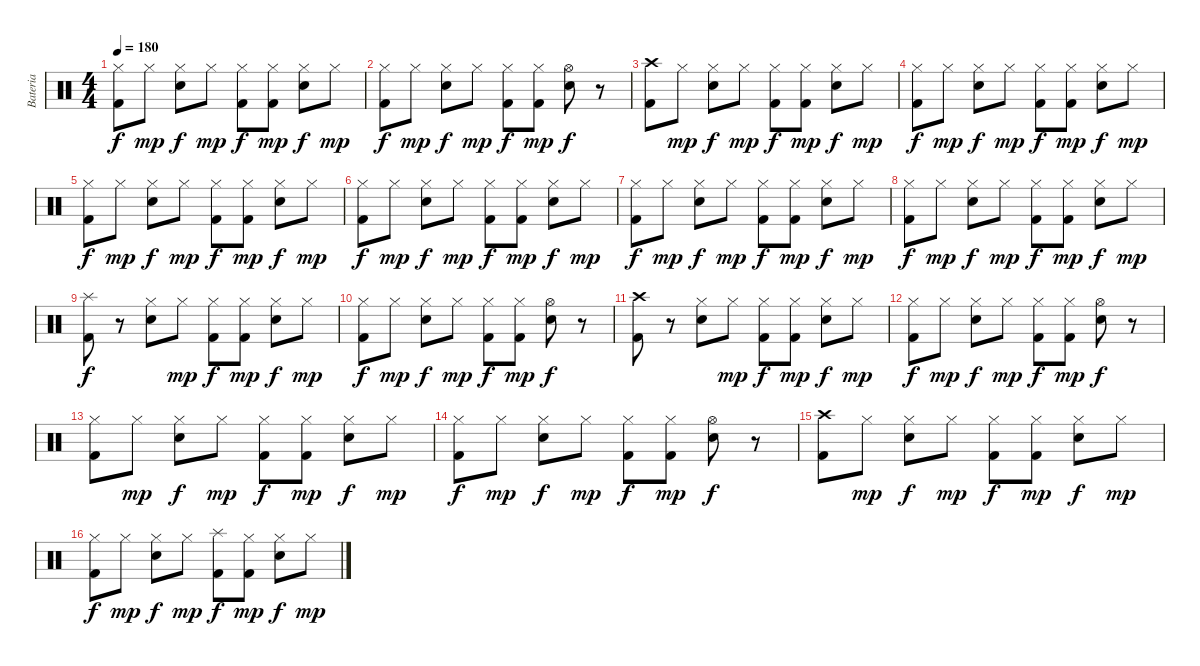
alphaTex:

\track ("Bateria" "Bateria") {instrument percussion}
\staff {score}
\articulation defaults
\ts (4 4)
\tempo 180
\clef neutral
\ks c
("Hi-Hat (closed)" "Kick (hit) 2").8{dy f} "Hi-Hat (closed)".8{dy mp} ("Hi-Hat (closed)" "Electric Snare (hit)").8{dy f} "Hi-Hat (closed)".8{dy mp} ("Hi-Hat (closed)" "Kick (hit) 2").8{dy f} ("Hi-Hat (closed)" "Kick (hit) 2").8{dy mp} ("Hi-Hat (closed)" "Electric Snare (hit)").8{dy f} "Hi-Hat (closed)".8{dy mp} |
("Hi-Hat (closed)" "Kick (hit) 2").8{dy f} "Hi-Hat (closed)".8{dy mp} ("Hi-Hat (closed)" "Electric Snare (hit)").8{dy f} "Hi-Hat (closed)".8{dy mp} ("Hi-Hat (closed)" "Kick (hit) 2").8{dy f} ("Hi-Hat (closed)" "Kick (hit) 2").8{dy mp} ("Hi-Hat (open)" "Electric Snare (hit)").8{dy f} r.8 |
("Crash high (hit)" "Kick (hit) 2").8 "Hi-Hat (closed)".8{dy mp} ("Hi-Hat (closed)" "Electric Snare (hit)").8{dy f} "Hi-Hat (closed)".8{dy mp} ("Hi-Hat (closed)" "Kick (hit) 2").8{dy f} ("Hi-Hat (closed)" "Kick (hit) 2").8{dy mp} ("Hi-Hat (closed)" "Electric Snare (hit)").8{dy f} "Hi-Hat (closed)".8{dy mp} |
("Hi-Hat (closed)" "Kick (hit) 2").8{dy f} "Hi-Hat (closed)".8{dy mp} ("Hi-Hat (closed)" "Electric Snare (hit)").8{dy f} "Hi-Hat (closed)".8{dy mp} ("Hi-Hat (closed)" "Kick (hit) 2").8{dy f} ("Hi-Hat (closed)" "Kick (hit) 2").8{dy mp} ("Hi-Hat (closed)" "Electric Snare (hit)").8{dy f} "Hi-Hat (closed)".8{dy mp} |
("Hi-Hat (closed)" "Kick (hit) 2").8{dy f} "Hi-Hat (closed)".8{dy mp} ("Hi-Hat (closed)" "Electric Snare (hit)").8{dy f} "Hi-Hat (closed)".8{dy mp} ("Hi-Hat (closed)" "Kick (hit) 2").8{dy f} ("Hi-Hat (closed)" "Kick (hit) 2").8{dy mp} ("Hi-Hat (closed)" "Electric Snare (hit)").8{dy f} "Hi-Hat (closed)".8{dy mp} |
("Hi-Hat (closed)" "Kick (hit) 2").8{dy f} "Hi-Hat (closed)".8{dy mp} ("Hi-Hat (closed)" "Electric Snare (hit)").8{dy f} "Hi-Hat (closed)".8{dy mp} ("Hi-Hat (closed)" "Kick (hit) 2").8{dy f} ("Hi-Hat (closed)" "Kick (hit) 2").8{dy mp} ("Hi-Hat (closed)" "Electric Snare (hit)").8{dy f} "Hi-Hat (closed)".8{dy mp} |
("Hi-Hat (closed)" "Kick (hit) 2").8{dy f} "Hi-Hat (closed)".8{dy mp} ("Hi-Hat (closed)" "Electric Snare (hit)").8{dy f} "Hi-Hat (closed)".8{dy mp} ("Hi-Hat (closed)" "Kick (hit) 2").8{dy f} ("Hi-Hat (closed)" "Kick (hit) 2").8{dy mp} ("Hi-Hat (closed)" "Electric Snare (hit)").8{dy f} "Hi-Hat (closed)".8{dy mp} |
("Hi-Hat (closed)" "Kick (hit) 2").8{dy f} "Hi-Hat (closed)".8{dy mp} ("Hi-Hat (closed)" "Electric Snare (hit)").8{dy f} "Hi-Hat (closed)".8{dy mp} ("Hi-Hat (closed)" "Kick (hit) 2").8{dy f} ("Hi-Hat (closed)" "Kick (hit) 2").8{dy mp} ("Hi-Hat (closed)" "Electric Snare (hit)").8{dy f} "Hi-Hat (closed)".8{dy mp} |
("Splash (hit)" "Kick (hit) 2").8{dy f} r.8 ("Hi-Hat (closed)" "Electric Snare (hit)").8 "Hi-Hat (closed)".8{dy mp} ("Hi-Hat (closed)" "Kick (hit) 2").8{dy f} ("Hi-Hat (closed)" "Kick (hit) 2").8{dy mp} ("Hi-Hat (closed)" "Electric Snare (hit)").8{dy f} "Hi-Hat (closed)".8{dy mp} |
("Hi-Hat (closed)" "Kick (hit) 2").8{dy f} "Hi-Hat (closed)".8{dy mp} ("Hi-Hat (closed)" "Electric Snare (hit)").8{dy f} "Hi-Hat (closed)".8{dy mp} ("Hi-Hat (closed)" "Kick (hit) 2").8{dy f} ("Hi-Hat (closed)" "Kick (hit) 2").8{dy mp} ("Hi-Hat (open)" "Electric Snare (hit)").8{dy f} r.8 |
("Crash high (hit)" "Kick (hit) 2").8 r.8 ("Hi-Hat (closed)" "Electric Snare (hit)").8 "Hi-Hat (closed)".8{dy mp} ("Hi-Hat (closed)" "Kick (hit) 2").8{dy f} ("Hi-Hat (closed)" "Kick (hit) 2").8{dy mp} ("Hi-Hat (closed)" "Electric Snare (hit)").8{dy f} "Hi-Hat (closed)".8{dy mp} |
("Hi-Hat (closed)" "Kick (hit) 2").8{dy f} "Hi-Hat (closed)".8{dy mp} ("Hi-Hat (closed)" "Electric Snare (hit)").8{dy f} "Hi-Hat (closed)".8{dy mp} ("Hi-Hat (closed)" "Kick (hit) 2").8{dy f} ("Hi-Hat (closed)" "Kick (hit) 2").8{dy mp} ("Hi-Hat (open)" "Electric Snare (hit)").8{dy f} r.8 |
("Hi-Hat (closed)" "Kick (hit) 2").8 "Hi-Hat (closed)".8{dy mp} ("Hi-Hat (closed)" "Electric Snare (hit)").8{dy f} "Hi-Hat (closed)".8{dy mp} ("Hi-Hat (closed)" "Kick (hit) 2").8{dy f} ("Hi-Hat (closed)" "Kick (hit) 2").8{dy mp} ("Hi-Hat (closed)" "Electric Snare (hit)").8{dy f} "Hi-Hat (closed)".8{dy mp} |
("Hi-Hat (closed)" "Kick (hit) 2").8{dy f} "Hi-Hat (closed)".8{dy mp} ("Hi-Hat (closed)" "Electric Snare (hit)").8{dy f} "Hi-Hat (closed)".8{dy mp} ("Hi-Hat (closed)" "Kick (hit) 2").8{dy f} ("Hi-Hat (closed)" "Kick (hit) 2").8{dy mp} ("Hi-Hat (open)" "Electric Snare (hit)").8{dy f} r.8 |
("Crash high (hit)" "Kick (hit) 2").8 "Hi-Hat (closed)".8{dy mp} ("Hi-Hat (closed)" "Electric Snare (hit)").8{dy f} "Hi-Hat (closed)".8{dy mp} ("Hi-Hat (closed)" "Kick (hit) 2").8{dy f} ("Hi-Hat (closed)" "Kick (hit) 2").8{dy mp} ("Hi-Hat (closed)" "Electric Snare (hit)").8{dy f} "Hi-Hat (closed)".8{dy mp} |
("Hi-Hat (closed)" "Kick (hit) 2").8{dy f} "Hi-Hat (closed)".8{dy mp} ("Hi-Hat (closed)" "Electric Snare (hit)").8{dy f} "Hi-Hat (closed)".8{dy mp} ("Splash (hit)" "Kick (hit) 2").8{dy f} ("Hi-Hat (closed)" "Kick (hit) 2").8{dy mp} ("Hi-Hat (closed)" "Electric Snare (hit)").8{dy f} "Hi-Hat (closed)".8{dy mp}
